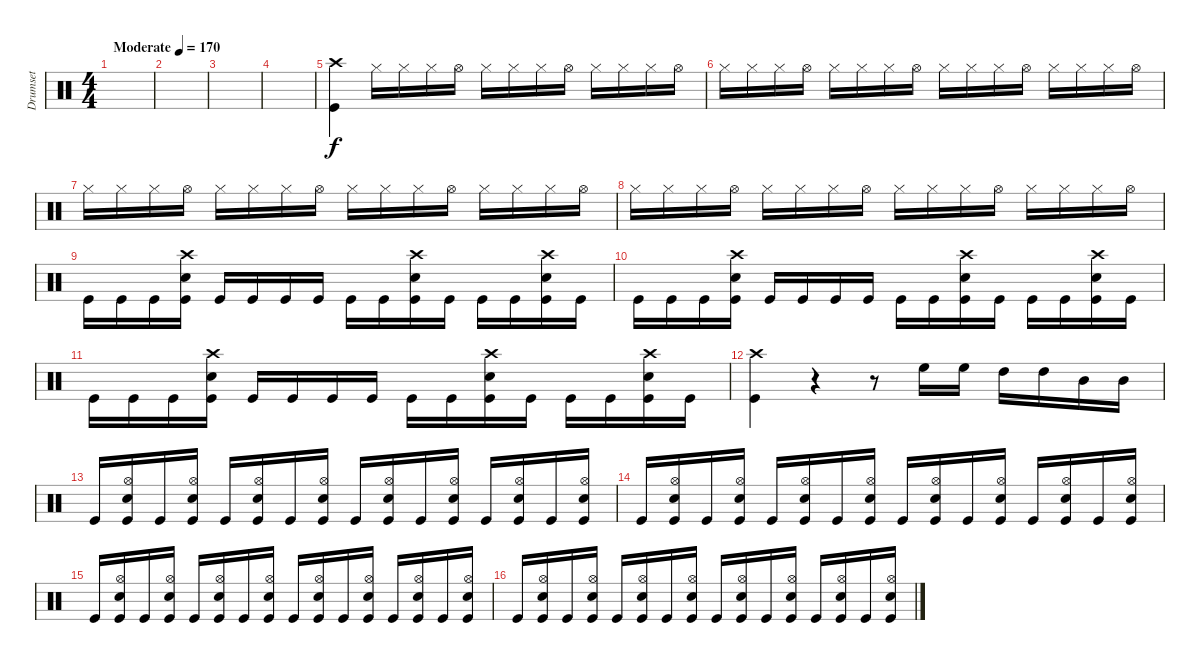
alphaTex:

\track ("Drumset" "Drumset") {instrument percussion}
\staff {score}
\articulation defaults
\ts (4 4)
\tempo (170 "Moderate")
\clef neutral
\ks c
|
|
|
|
("Crash high (hit)" "Kick (hit)").4 "Hi-Hat (closed)".16 "Hi-Hat (closed)".16 "Hi-Hat (closed)".16 "Hi-Hat (open)".16 "Hi-Hat (closed)".16 "Hi-Hat (closed)".16 "Hi-Hat (closed)".16 "Hi-Hat (open)".16 "Hi-Hat (closed)".16 "Hi-Hat (closed)".16 "Hi-Hat (closed)".16 "Hi-Hat (open)".16 |
"Hi-Hat (closed)".16 "Hi-Hat (closed)".16 "Hi-Hat (closed)".16 "Hi-Hat (open)".16 "Hi-Hat (closed)".16 "Hi-Hat (closed)".16 "Hi-Hat (closed)".16 "Hi-Hat (open)".16 "Hi-Hat (closed)".16 "Hi-Hat (closed)".16 "Hi-Hat (closed)".16 "Hi-Hat (open)".16 "Hi-Hat (closed)".16 "Hi-Hat (closed)".16 "Hi-Hat (closed)".16 "Hi-Hat (open)".16 |
"Hi-Hat (closed)".16 "Hi-Hat (closed)".16 "Hi-Hat (closed)".16 "Hi-Hat (open)".16 "Hi-Hat (closed)".16 "Hi-Hat (closed)".16 "Hi-Hat (closed)".16 "Hi-Hat (open)".16 "Hi-Hat (closed)".16 "Hi-Hat (closed)".16 "Hi-Hat (closed)".16 "Hi-Hat (open)".16 "Hi-Hat (closed)".16 "Hi-Hat (closed)".16 "Hi-Hat (closed)".16 "Hi-Hat (open)".16 |
"Hi-Hat (closed)".16 "Hi-Hat (closed)".16 "Hi-Hat (closed)".16 "Hi-Hat (open)".16 "Hi-Hat (closed)".16 "Hi-Hat (closed)".16 "Hi-Hat (closed)".16 "Hi-Hat (open)".16 "Hi-Hat (closed)".16 "Hi-Hat (closed)".16 "Hi-Hat (closed)".16 "Hi-Hat (open)".16 "Hi-Hat (closed)".16 "Hi-Hat (closed)".16 "Hi-Hat (closed)".16 "Hi-Hat (open)".16 |
"Kick (hit)".16 "Kick (hit)".16 "Kick (hit)".16 ("Crash high (hit)" "Snare (hit) 2" "Kick (hit)").16 "Kick (hit)".16 "Kick (hit)".16 "Kick (hit)".16 "Kick (hit)".16 "Kick (hit)".16 "Kick (hit)".16 ("Crash high (hit)" "Snare (hit) 2" "Kick (hit)").16 "Kick (hit)".16 "Kick (hit)".16 "Kick (hit)".16 ("Crash high (hit)" "Snare (hit) 2" "Kick (hit)").16 "Kick (hit)".16 |
"Kick (hit)".16 "Kick (hit)".16 "Kick (hit)".16 ("Crash high (hit)" "Snare (hit) 2" "Kick (hit)").16 "Kick (hit)".16 "Kick (hit)".16 "Kick (hit)".16 "Kick (hit)".16 "Kick (hit)".16 "Kick (hit)".16 ("Crash high (hit)" "Snare (hit) 2" "Kick (hit)").16 "Kick (hit)".16 "Kick (hit)".16 "Kick (hit)".16 ("Crash high (hit)" "Snare (hit) 2" "Kick (hit)").16 "Kick (hit)".16 |
"Kick (hit)".16 "Kick (hit)".16 "Kick (hit)".16 ("Crash high (hit)" "Snare (hit) 2" "Kick (hit)").16 "Kick (hit)".16 "Kick (hit)".16 "Kick (hit)".16 "Kick (hit)".16 "Kick (hit)".16 "Kick (hit)".16 ("Crash high (hit)" "Snare (hit) 2" "Kick (hit)").16 "Kick (hit)".16 "Kick (hit)".16 "Kick (hit)".16 ("Crash high (hit)" "Snare (hit) 2" "Kick (hit)").16 "Kick (hit)".16 |
("Crash high (hit)" "Kick (hit)").4 r.4 r.8 "High Floor Tom (hit)".16 "High Floor Tom (hit)".16 "High Tom (hit)".16 "High Tom (hit)".16 "Mid Tom (hit)".16 "Mid Tom (hit)".16 |
"Kick (hit)".16 ("Hi-Hat (open)" "Snare (hit) 2" "Kick (hit)").16 "Kick (hit)".16 ("Hi-Hat (open)" "Snare (hit) 2" "Kick (hit)").16 "Kick (hit)".16 ("Hi-Hat (open)" "Snare (hit) 2" "Kick (hit)").16 "Kick (hit)".16 ("Hi-Hat (open)" "Snare (hit) 2" "Kick (hit)").16 "Kick (hit)".16 ("Hi-Hat (open)" "Snare (hit) 2" "Kick (hit)").16 "Kick (hit)".16 ("Hi-Hat (open)" "Snare (hit) 2" "Kick (hit)").16 "Kick (hit)".16 ("Hi-Hat (open)" "Snare (hit) 2" "Kick (hit)").16 "Kick (hit)".16 ("Hi-Hat (open)" "Snare (hit) 2" "Kick (hit)").16 |
"Kick (hit)".16 ("Hi-Hat (open)" "Snare (hit) 2" "Kick (hit)").16 "Kick (hit)".16 ("Hi-Hat (open)" "Snare (hit) 2" "Kick (hit)").16 "Kick (hit)".16 ("Hi-Hat (open)" "Snare (hit) 2" "Kick (hit)").16 "Kick (hit)".16 ("Hi-Hat (open)" "Snare (hit) 2" "Kick (hit)").16 "Kick (hit)".16 ("Hi-Hat (open)" "Snare (hit) 2" "Kick (hit)").16 "Kick (hit)".16 ("Hi-Hat (open)" "Snare (hit) 2" "Kick (hit)").16 "Kick (hit)".16 ("Hi-Hat (open)" "Snare (hit) 2" "Kick (hit)").16 "Kick (hit)".16 ("Hi-Hat (open)" "Snare (hit) 2" "Kick (hit)").16 |
"Kick (hit)".16 ("Hi-Hat (open)" "Snare (hit) 2" "Kick (hit)").16 "Kick (hit)".16 ("Hi-Hat (open)" "Snare (hit) 2" "Kick (hit)").16 "Kick (hit)".16 ("Hi-Hat (open)" "Snare (hit) 2" "Kick (hit)").16 "Kick (hit)".16 ("Hi-Hat (open)" "Snare (hit) 2" "Kick (hit)").16 "Kick (hit)".16 ("Hi-Hat (open)" "Snare (hit) 2" "Kick (hit)").16 "Kick (hit)".16 ("Hi-Hat (open)" "Snare (hit) 2" "Kick (hit)").16 "Kick (hit)".16 ("Hi-Hat (open)" "Snare (hit) 2" "Kick (hit)").16 "Kick (hit)".16 ("Hi-Hat (open)" "Snare (hit) 2" "Kick (hit)").16 |
"Kick (hit)".16 ("Hi-Hat (open)" "Snare (hit) 2" "Kick (hit)").16 "Kick (hit)".16 ("Hi-Hat (open)" "Snare (hit) 2" "Kick (hit)").16 "Kick (hit)".16 ("Hi-Hat (open)" "Snare (hit) 2" "Kick (hit)").16 "Kick (hit)".16 ("Hi-Hat (open)" "Snare (hit) 2" "Kick (hit)").16 "Kick (hit)".16 ("Hi-Hat (open)" "Snare (hit) 2" "Kick (hit)").16 "Kick (hit)".16 ("Hi-Hat (open)" "Snare (hit) 2" "Kick (hit)").16 "Kick (hit)".16 ("Hi-Hat (open)" "Snare (hit) 2" "Kick (hit)").16 "Kick (hit)".16 ("Hi-Hat (open)" "Snare (hit) 2" "Kick (hit)").16
